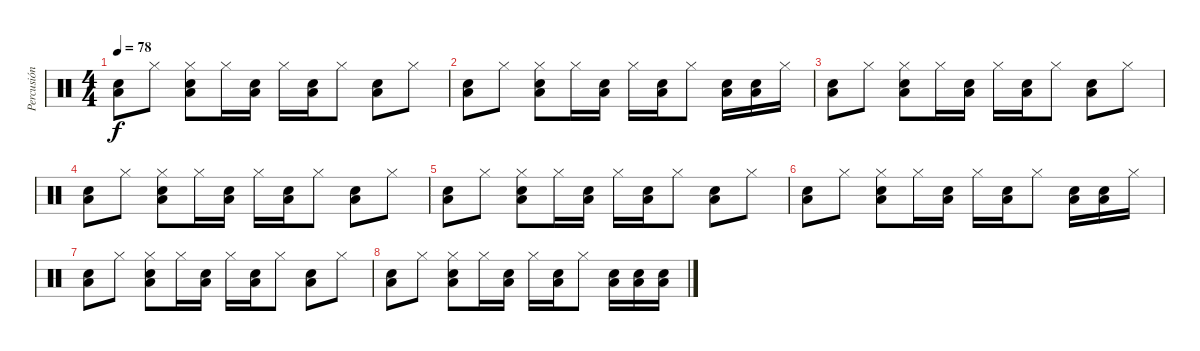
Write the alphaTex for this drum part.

\track ("Percusión" "Percusión") {instrument percussion}
\staff {score}
\articulation defaults
\ts (4 4)
\tempo 78
\clef neutral
\ks c
("Low Tom (hit)" "Snare (hit) 2").8{dy f} "Hi-Hat (closed)".8 ("Hi-Hat (closed)" "Low Tom (hit)" "Snare (hit) 2").8 "Hi-Hat (closed)".16 ("Low Tom (hit)" "Snare (hit) 2").16 "Hi-Hat (closed)".16 ("Low Tom (hit)" "Snare (hit) 2").16 "Hi-Hat (closed)".8 ("Low Tom (hit)" "Snare (hit) 2").8 "Hi-Hat (closed)".8 |
("Low Tom (hit)" "Snare (hit) 2").8 "Hi-Hat (closed)".8 ("Hi-Hat (closed)" "Low Tom (hit)" "Snare (hit) 2").8 "Hi-Hat (closed)".16 ("Low Tom (hit)" "Snare (hit) 2").16 "Hi-Hat (closed)".16 ("Low Tom (hit)" "Snare (hit) 2").16 "Hi-Hat (closed)".8 ("Low Tom (hit)" "Snare (hit) 2").16 ("Low Tom (hit)" "Snare (hit) 2").16 "Hi-Hat (closed)".16 |
("Low Tom (hit)" "Snare (hit) 2").8 "Hi-Hat (closed)".8 ("Hi-Hat (closed)" "Low Tom (hit)" "Snare (hit) 2").8 "Hi-Hat (closed)".16 ("Low Tom (hit)" "Snare (hit) 2").16 "Hi-Hat (closed)".16 ("Low Tom (hit)" "Snare (hit) 2").16 "Hi-Hat (closed)".8 ("Low Tom (hit)" "Snare (hit) 2").8 "Hi-Hat (closed)".8 |
("Low Tom (hit)" "Snare (hit) 2").8 "Hi-Hat (closed)".8 ("Hi-Hat (closed)" "Low Tom (hit)" "Snare (hit) 2").8 "Hi-Hat (closed)".16 ("Low Tom (hit)" "Snare (hit) 2").16 "Hi-Hat (closed)".16 ("Low Tom (hit)" "Snare (hit) 2").16 "Hi-Hat (closed)".8 ("Low Tom (hit)" "Snare (hit) 2").8 "Hi-Hat (closed)".8 |
("Low Tom (hit)" "Snare (hit) 2").8 "Hi-Hat (closed)".8 ("Hi-Hat (closed)" "Low Tom (hit)" "Snare (hit) 2").8 "Hi-Hat (closed)".16 ("Low Tom (hit)" "Snare (hit) 2").16 "Hi-Hat (closed)".16 ("Low Tom (hit)" "Snare (hit) 2").16 "Hi-Hat (closed)".8 ("Low Tom (hit)" "Snare (hit) 2").8 "Hi-Hat (closed)".8 |
("Low Tom (hit)" "Snare (hit) 2").8 "Hi-Hat (closed)".8 ("Hi-Hat (closed)" "Low Tom (hit)" "Snare (hit) 2").8 "Hi-Hat (closed)".16 ("Low Tom (hit)" "Snare (hit) 2").16 "Hi-Hat (closed)".16 ("Low Tom (hit)" "Snare (hit) 2").16 "Hi-Hat (closed)".8 ("Low Tom (hit)" "Snare (hit) 2").16 ("Low Tom (hit)" "Snare (hit) 2").16 "Hi-Hat (closed)".16 |
("Low Tom (hit)" "Snare (hit) 2").8 "Hi-Hat (closed)".8 ("Hi-Hat (closed)" "Low Tom (hit)" "Snare (hit) 2").8 "Hi-Hat (closed)".16 ("Low Tom (hit)" "Snare (hit) 2").16 "Hi-Hat (closed)".16 ("Low Tom (hit)" "Snare (hit) 2").16 "Hi-Hat (closed)".8 ("Low Tom (hit)" "Snare (hit) 2").8 "Hi-Hat (closed)".8 |
("Low Tom (hit)" "Snare (hit) 2").8 "Hi-Hat (closed)".8 ("Hi-Hat (closed)" "Low Tom (hit)" "Snare (hit) 2").8 "Hi-Hat (closed)".16 ("Low Tom (hit)" "Snare (hit) 2").16 "Hi-Hat (closed)".16 ("Low Tom (hit)" "Snare (hit) 2").16 "Hi-Hat (closed)".8 ("Low Tom (hit)" "Snare (hit) 2").16 ("Low Tom (hit)" "Snare (hit) 2").16 ("Low Tom (hit)" "Snare (hit) 2").16
